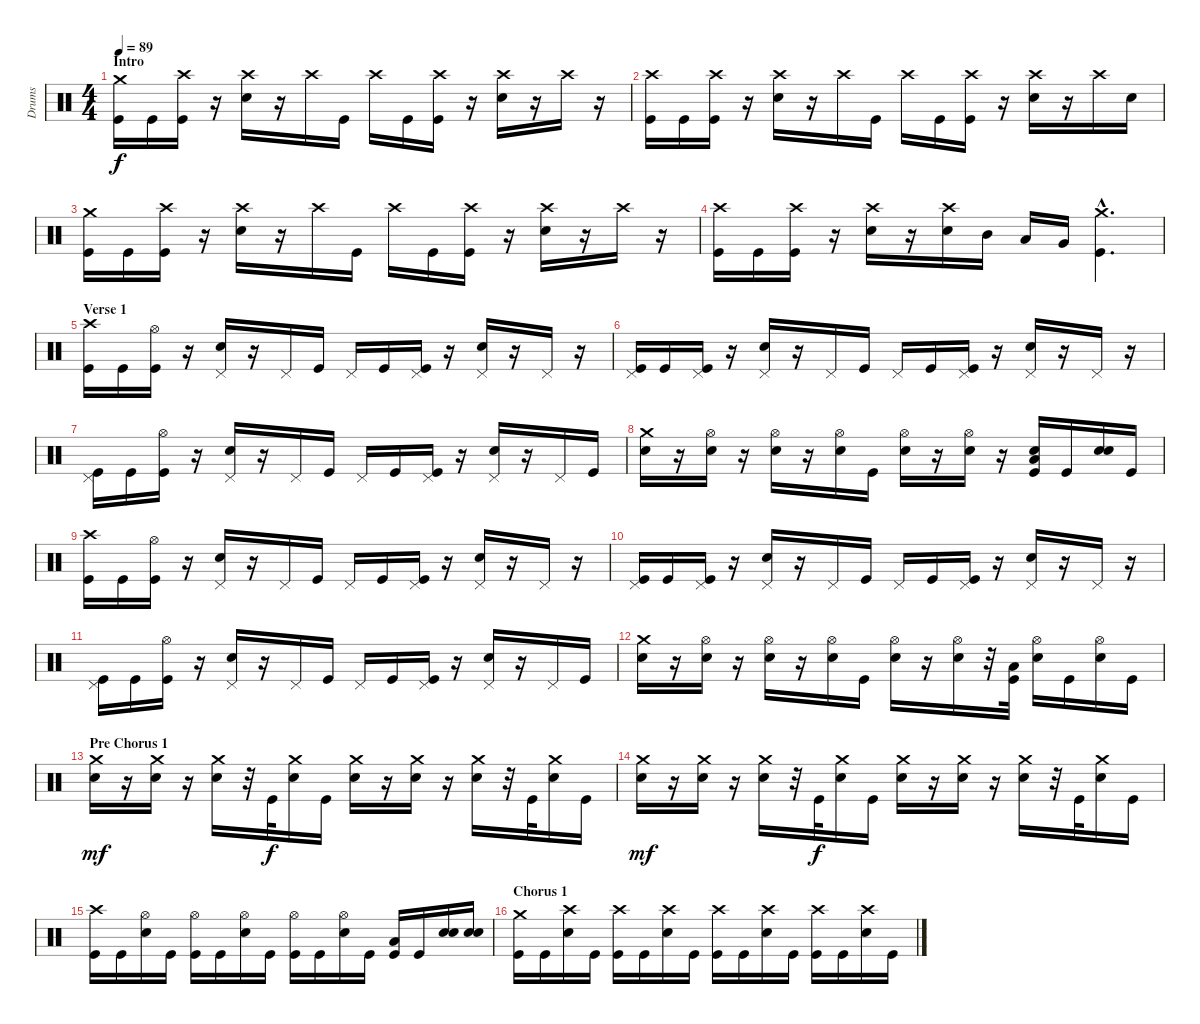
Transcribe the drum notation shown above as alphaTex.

\track ("Drums" "Drums") {instrument percussion}
\staff {score}
\articulation defaults
\ts (4 4)
\section ("" "Intro")
\tempo 89
\clef neutral
\ks c
("Crash medium (hit)" "Kick (hit)").16{dy f} "Kick (hit)".16 ("Crash high (hit)" "Kick (hit)").16 r.16 ("Crash high (hit)" "Electric Snare (hit)").16 r.16 "Crash high (hit)".16 "Kick (hit)".16 "Crash high (hit)".16 "Kick (hit)".16 ("Crash high (hit)" "Kick (hit)").16 r.16 ("Crash high (hit)" "Electric Snare (hit)").16 r.16 "Crash high (hit)".16 r.16 |
("Crash high (hit)" "Kick (hit)").16 "Kick (hit)".16 ("Crash high (hit)" "Kick (hit)").16 r.16 ("Crash high (hit)" "Electric Snare (hit)").16 r.16 "Crash high (hit)".16 "Kick (hit)".16 "Crash high (hit)".16 "Kick (hit)".16 ("Crash high (hit)" "Kick (hit)").16 r.16 ("Crash high (hit)" "Electric Snare (hit)").16 r.16 "Crash high (hit)".16 "Electric Snare (hit)".16 |
("Crash medium (hit)" "Kick (hit)").16 "Kick (hit)".16 ("Crash high (hit)" "Kick (hit)").16 r.16 ("Crash high (hit)" "Electric Snare (hit)").16 r.16 "Crash high (hit)".16 "Kick (hit)".16 "Crash high (hit)".16 "Kick (hit)".16 ("Crash high (hit)" "Kick (hit)").16 r.16 ("Crash high (hit)" "Electric Snare (hit)").16 r.16 "Crash high (hit)".16 r.16 |
("Crash high (hit)" "Kick (hit)").16 "Kick (hit)".16 ("Crash high (hit)" "Kick (hit)").16 r.16 ("Crash high (hit)" "Electric Snare (hit)").16 r.16 ("Crash high (hit)" "Electric Snare (hit)").16 "Mid Tom (hit)".16 "Low Tom (hit)".16 "Very Low Tom (hit)".16 ("Crash medium (hit)"{hac} "Kick (hit)"{hac}).4{d} |
\section ("" "Verse 1")
("Crash high (hit)" "Kick (hit)").16 "Kick (hit)".16 ("Hi-Hat (open)" "Kick (hit)").16 r.16 ("Pedal Hi-Hat (hit)" "Electric Snare (hit)").16 r.16 "Pedal Hi-Hat (hit)".16 "Kick (hit)".16 "Pedal Hi-Hat (hit)".16 "Kick (hit)".16 ("Pedal Hi-Hat (hit)" "Kick (hit)").16 r.16 ("Pedal Hi-Hat (hit)" "Electric Snare (hit)").16 r.16 "Pedal Hi-Hat (hit)".16 r.16 |
("Pedal Hi-Hat (hit)" "Kick (hit)").16 "Kick (hit)".16 ("Pedal Hi-Hat (hit)" "Kick (hit)").16 r.16 ("Pedal Hi-Hat (hit)" "Electric Snare (hit)").16 r.16 "Pedal Hi-Hat (hit)".16 "Kick (hit)".16 "Pedal Hi-Hat (hit)".16 "Kick (hit)".16 ("Pedal Hi-Hat (hit)" "Kick (hit)").16 r.16 ("Pedal Hi-Hat (hit)" "Electric Snare (hit)").16 r.16 "Pedal Hi-Hat (hit)".16 r.16 |
("Pedal Hi-Hat (hit)" "Kick (hit)").16 "Kick (hit)".16 ("Hi-Hat (open)" "Kick (hit)").16 r.16 ("Pedal Hi-Hat (hit)" "Electric Snare (hit)").16 r.16 "Pedal Hi-Hat (hit)".16 "Kick (hit)".16 "Pedal Hi-Hat (hit)".16 "Kick (hit)".16 ("Pedal Hi-Hat (hit)" "Kick (hit)").16 r.16 ("Pedal Hi-Hat (hit)" "Electric Snare (hit)").16 r.16 "Pedal Hi-Hat (hit)".16 "Kick (hit)".16 |
("Crash medium (hit)" "Electric Snare (hit)").16 r.16 ("Hi-Hat (open)" "Electric Snare (hit)").16 r.16 ("Hi-Hat (open)" "Electric Snare (hit)").16 r.16 ("Hi-Hat (open)" "Electric Snare (hit)").16 "Kick (hit)".16 ("Hi-Hat (open)" "Electric Snare (hit)").16 r.16 ("Hi-Hat (open)" "Electric Snare (hit)").16 r.16 ("Kick (hit)" "Electric Snare (hit)" "Low Floor Tom (hit)").16 "Kick (hit)".16 ("Electric Snare (hit)" "Electric Snare (hit)").16 "Kick (hit)".16 |
("Crash high (hit)" "Kick (hit)").16 "Kick (hit)".16 ("Hi-Hat (open)" "Kick (hit)").16 r.16 ("Pedal Hi-Hat (hit)" "Electric Snare (hit)").16 r.16 "Pedal Hi-Hat (hit)".16 "Kick (hit)".16 "Pedal Hi-Hat (hit)".16 "Kick (hit)".16 ("Pedal Hi-Hat (hit)" "Kick (hit)").16 r.16 ("Pedal Hi-Hat (hit)" "Electric Snare (hit)").16 r.16 "Pedal Hi-Hat (hit)".16 r.16 |
("Pedal Hi-Hat (hit)" "Kick (hit)").16 "Kick (hit)".16 ("Pedal Hi-Hat (hit)" "Kick (hit)").16 r.16 ("Pedal Hi-Hat (hit)" "Electric Snare (hit)").16 r.16 "Pedal Hi-Hat (hit)".16 "Kick (hit)".16 "Pedal Hi-Hat (hit)".16 "Kick (hit)".16 ("Pedal Hi-Hat (hit)" "Kick (hit)").16 r.16 ("Pedal Hi-Hat (hit)" "Electric Snare (hit)").16 r.16 "Pedal Hi-Hat (hit)".16 r.16 |
("Pedal Hi-Hat (hit)" "Kick (hit)").16 "Kick (hit)".16 ("Hi-Hat (open)" "Kick (hit)").16 r.16 ("Pedal Hi-Hat (hit)" "Electric Snare (hit)").16 r.16 "Pedal Hi-Hat (hit)".16 "Kick (hit)".16 "Pedal Hi-Hat (hit)".16 "Kick (hit)".16 ("Pedal Hi-Hat (hit)" "Kick (hit)").16 r.16 ("Pedal Hi-Hat (hit)" "Electric Snare (hit)").16 r.16 "Pedal Hi-Hat (hit)".16 "Kick (hit)".16 |
("Crash medium (hit)" "Electric Snare (hit)").16 r.16 ("Hi-Hat (open)" "Electric Snare (hit)").16 r.16 ("Hi-Hat (open)" "Electric Snare (hit)").16 r.16 ("Hi-Hat (open)" "Electric Snare (hit)").16 "Kick (hit)".16 ("Hi-Hat (open)" "Electric Snare (hit)").16 r.16 ("Hi-Hat (open)" "Electric Snare (hit)").16 r.32 ("Kick (hit)" "Low Floor Tom (hit)").32 ("Hi-Hat (open)" "Electric Snare (hit)").16 "Kick (hit)".16 ("Hi-Hat (open)" "Electric Snare (hit)").16 "Kick (hit)".16 |
\section ("" "Pre Chorus 1")
("Crash medium (hit)" "Electric Snare (hit)").16{dy mf} r.16 ("Crash medium (hit)" "Electric Snare (hit)").16 r.16 ("Crash medium (hit)" "Electric Snare (hit)").16 r.32 "Kick (hit)".32{dy f} ("Crash medium (hit)" "Electric Snare (hit)").16 "Kick (hit)".16 ("Crash medium (hit)" "Electric Snare (hit)").16 r.16 ("Crash medium (hit)" "Electric Snare (hit)").16 r.16 ("Crash medium (hit)" "Electric Snare (hit)").16 r.32 "Kick (hit)".32 ("Crash medium (hit)" "Electric Snare (hit)").16 "Kick (hit)".16 |
("Crash medium (hit)" "Electric Snare (hit)").16{dy mf} r.16 ("Crash medium (hit)" "Electric Snare (hit)").16 r.16 ("Crash medium (hit)" "Electric Snare (hit)").16 r.32 "Kick (hit)".32{dy f} ("Crash medium (hit)" "Electric Snare (hit)").16 "Kick (hit)".16 ("Crash medium (hit)" "Electric Snare (hit)").16 r.16 ("Crash medium (hit)" "Electric Snare (hit)").16 r.16 ("Crash medium (hit)" "Electric Snare (hit)").16 r.32 "Kick (hit)".32 ("Crash medium (hit)" "Electric Snare (hit)").16 "Kick (hit)".16 |
("Crash high (hit)" "Kick (hit)").16 "Kick (hit)".16 ("Hi-Hat (open)" "Electric Snare (hit)").16 "Kick (hit)".16 ("Hi-Hat (open)" "Kick (hit)").16 "Kick (hit)".16 ("Hi-Hat (open)" "Electric Snare (hit)").16 "Kick (hit)".16 ("Hi-Hat (open)" "Kick (hit)").16 "Kick (hit)".16 ("Hi-Hat (open)" "Electric Snare (hit)").16 "Kick (hit)".16 ("Kick (hit)" "Low Floor Tom (hit)").16 "Kick (hit)".16 ("Electric Snare (hit)" "Electric Snare (hit)").16 ("Electric Snare (hit)" "Electric Snare (hit)").16 |
\section ("" "Chorus 1")
("Crash medium (hit)" "Kick (hit)").16 "Kick (hit)".16 ("Crash high (hit)" "Electric Snare (hit)").16 "Kick (hit)".16 ("Crash high (hit)" "Kick (hit)").16 "Kick (hit)".16 ("Crash high (hit)" "Electric Snare (hit)").16 "Kick (hit)".16 ("Crash high (hit)" "Kick (hit)").16 "Kick (hit)".16 ("Crash high (hit)" "Electric Snare (hit)").16 "Kick (hit)".16 ("Crash high (hit)" "Kick (hit)").16 "Kick (hit)".16 ("Crash high (hit)" "Electric Snare (hit)").16 "Kick (hit)".16
